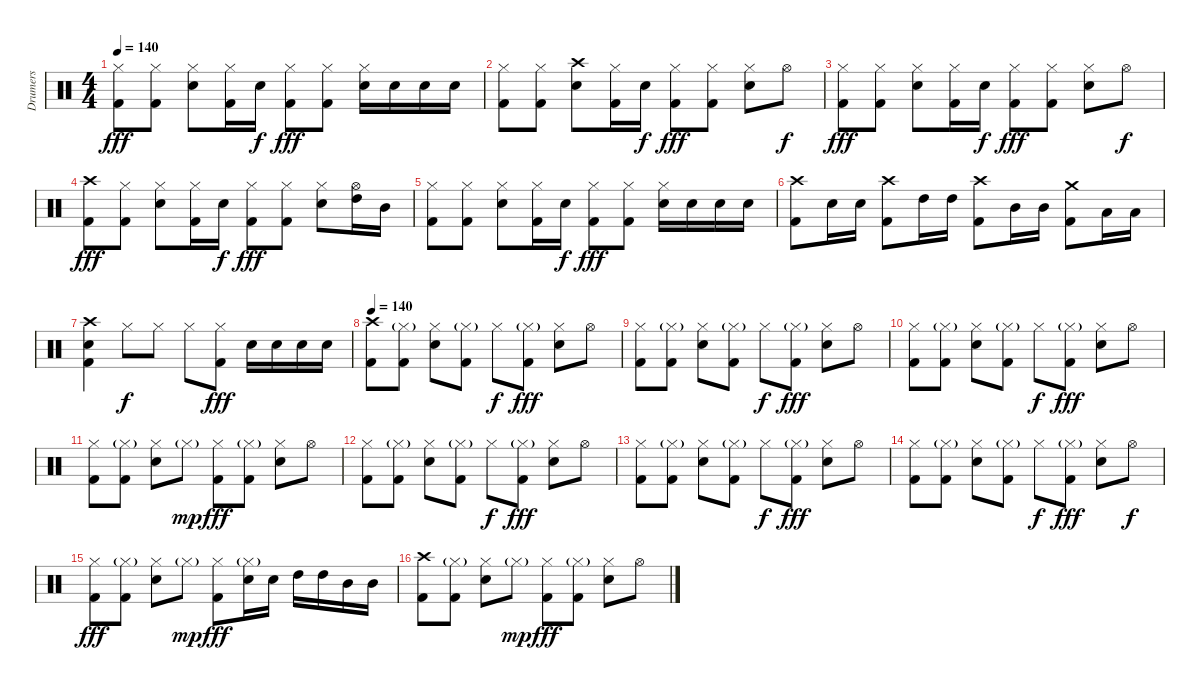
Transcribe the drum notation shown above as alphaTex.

\track ("Drumers" "Drumers") {instrument percussion}
\staff {score}
\articulation defaults
\ts (4 4)
\tempo 140
\clef neutral
\ks c
("Hi-Hat (closed)" "Kick (hit) 2").8{dy fff} ("Hi-Hat (closed)" "Kick (hit) 2").8 ("Hi-Hat (closed)" "Electric Snare (hit)").8 ("Hi-Hat (closed)" "Kick (hit) 2").16 "Electric Snare (hit)".16{dy f} ("Hi-Hat (closed)" "Kick (hit) 2").8{dy fff} ("Hi-Hat (closed)" "Kick (hit) 2").8 ("Hi-Hat (closed)" "Electric Snare (hit)").16 "Electric Snare (hit)".16 "Electric Snare (hit)".16 "Electric Snare (hit)".16 |
("Hi-Hat (closed)" "Kick (hit) 2").8 ("Hi-Hat (closed)" "Kick (hit) 2").8 ("Crash high (hit)" "Electric Snare (hit)").8 ("Hi-Hat (closed)" "Kick (hit) 2").16 "Electric Snare (hit)".16{dy f} ("Hi-Hat (closed)" "Kick (hit) 2").8{dy fff} ("Hi-Hat (closed)" "Kick (hit) 2").8 ("Hi-Hat (closed)" "Electric Snare (hit)").8 "Hi-Hat (open)".8{dy f} |
("Hi-Hat (closed)" "Kick (hit) 2").8{dy fff} ("Hi-Hat (closed)" "Kick (hit) 2").8 ("Hi-Hat (closed)" "Electric Snare (hit)").8 ("Hi-Hat (closed)" "Kick (hit) 2").16 "Electric Snare (hit)".16{dy f} ("Hi-Hat (closed)" "Kick (hit) 2").8{dy fff} ("Hi-Hat (closed)" "Kick (hit) 2").8 ("Hi-Hat (closed)" "Electric Snare (hit)").8 "Hi-Hat (open)".8{dy f} |
("Crash high (hit)" "Kick (hit) 2").8{dy fff} ("Hi-Hat (closed)" "Kick (hit) 2").8 ("Hi-Hat (closed)" "Electric Snare (hit)").8 ("Hi-Hat (closed)" "Kick (hit) 2").16 "Electric Snare (hit)".16{dy f} ("Hi-Hat (closed)" "Kick (hit) 2").8{dy fff} ("Hi-Hat (closed)" "Kick (hit) 2").8 ("Hi-Hat (closed)" "Electric Snare (hit)").8 ("Hi-Hat (open)" "High Tom (hit)").16 "Mid Tom (hit)".16 |
("Hi-Hat (closed)" "Kick (hit) 2").8 ("Hi-Hat (closed)" "Kick (hit) 2").8 ("Hi-Hat (closed)" "Electric Snare (hit)").8 ("Hi-Hat (closed)" "Kick (hit) 2").16 "Electric Snare (hit)".16{dy f} ("Hi-Hat (closed)" "Kick (hit) 2").8{dy fff} ("Hi-Hat (closed)" "Kick (hit) 2").8 ("Hi-Hat (closed)" "Electric Snare (hit)").16 "Electric Snare (hit)".16 "Electric Snare (hit)".16 "Electric Snare (hit)".16 |
("Crash high (hit)" "Kick (hit) 2").8 "Electric Snare (hit)".16 "Electric Snare (hit)".16 ("Crash high (hit)" "Kick (hit) 2").8 "High Tom (hit)".16 "High Tom (hit)".16 ("Crash high (hit)" "Kick (hit) 2").8 "Mid Tom (hit)".16 "Mid Tom (hit)".16 ("Crash medium (hit)" "Kick (hit) 2").8 "Low Tom (hit)".16 "Low Tom (hit)".16 |
("Crash high (hit)" "Electric Snare (hit)" "Kick (hit) 2").4 "Hi-Hat (closed)".8{dy f} "Hi-Hat (closed)".8 "Hi-Hat (closed)".8 ("Hi-Hat (closed)" "Kick (hit) 2").8{dy fff} "Electric Snare (hit)".16 "Electric Snare (hit)".16 "Electric Snare (hit)".16 "Electric Snare (hit)".16 |
\tempo 140
("Crash high (hit)" "Kick (hit) 2").8 ("Hi-Hat (closed)"{g} "Kick (hit) 2").8 ("Hi-Hat (closed)" "Electric Snare (hit)").8 ("Hi-Hat (closed)"{g} "Kick (hit) 2").8 "Hi-Hat (closed)".8{dy f} ("Hi-Hat (closed)"{g} "Kick (hit) 2").8{dy fff} ("Hi-Hat (closed)" "Electric Snare (hit)").8 "Hi-Hat (open)".8 |
("Hi-Hat (closed)" "Kick (hit) 2").8 ("Hi-Hat (closed)"{g} "Kick (hit) 2").8 ("Hi-Hat (closed)" "Electric Snare (hit)").8 ("Hi-Hat (closed)"{g} "Kick (hit) 2").8 "Hi-Hat (closed)".8{dy f} ("Hi-Hat (closed)"{g} "Kick (hit) 2").8{dy fff} ("Hi-Hat (closed)" "Electric Snare (hit)").8 "Hi-Hat (open)".8 |
("Hi-Hat (closed)" "Kick (hit) 2").8 ("Hi-Hat (closed)"{g} "Kick (hit) 2").8 ("Hi-Hat (closed)" "Electric Snare (hit)").8 ("Hi-Hat (closed)"{g} "Kick (hit) 2").8 "Hi-Hat (closed)".8{dy f} ("Hi-Hat (closed)"{g} "Kick (hit) 2").8{dy fff} ("Hi-Hat (closed)" "Electric Snare (hit)").8 "Hi-Hat (open)".8 |
("Hi-Hat (closed)" "Kick (hit) 2").8 ("Hi-Hat (closed)"{g} "Kick (hit) 2").8 ("Hi-Hat (closed)" "Electric Snare (hit)").8 "Hi-Hat (closed)"{g}.8{dy mp} ("Hi-Hat (closed)" "Kick (hit) 2").8{dy fff} ("Hi-Hat (closed)"{g} "Kick (hit) 2").8 ("Hi-Hat (closed)" "Electric Snare (hit)").8 "Hi-Hat (open)".8 |
("Hi-Hat (closed)" "Kick (hit) 2").8 ("Hi-Hat (closed)"{g} "Kick (hit) 2").8 ("Hi-Hat (closed)" "Electric Snare (hit)").8 ("Hi-Hat (closed)"{g} "Kick (hit) 2").8 "Hi-Hat (closed)".8{dy f} ("Hi-Hat (closed)"{g} "Kick (hit) 2").8{dy fff} ("Hi-Hat (closed)" "Electric Snare (hit)").8 "Hi-Hat (open)".8 |
("Hi-Hat (closed)" "Kick (hit) 2").8 ("Hi-Hat (closed)"{g} "Kick (hit) 2").8 ("Hi-Hat (closed)" "Electric Snare (hit)").8 ("Hi-Hat (closed)"{g} "Kick (hit) 2").8 "Hi-Hat (closed)".8{dy f} ("Hi-Hat (closed)"{g} "Kick (hit) 2").8{dy fff} ("Hi-Hat (closed)" "Electric Snare (hit)").8 "Hi-Hat (open)".8 |
("Hi-Hat (closed)" "Kick (hit) 2").8 ("Hi-Hat (closed)"{g} "Kick (hit) 2").8 ("Hi-Hat (closed)" "Electric Snare (hit)").8 ("Hi-Hat (closed)"{g} "Kick (hit) 2").8 "Hi-Hat (closed)".8{dy f} ("Hi-Hat (closed)"{g} "Kick (hit) 2").8{dy fff} ("Hi-Hat (closed)" "Electric Snare (hit)").8 "Hi-Hat (open)".8{dy f} |
("Hi-Hat (closed)" "Kick (hit) 2").8{dy fff} ("Hi-Hat (closed)"{g} "Kick (hit) 2").8 ("Hi-Hat (closed)" "Electric Snare (hit)").8 "Hi-Hat (closed)"{g}.8{dy mp} ("Hi-Hat (closed)" "Kick (hit) 2").8{dy fff} ("Hi-Hat (closed)"{g} "Electric Snare (hit)").16 "Electric Snare (hit)".16 "High Tom (hit)".16 "High Tom (hit)".16 "Mid Tom (hit)".16 "Mid Tom (hit)".16 |
("Crash high (hit)" "Kick (hit) 2").8 ("Hi-Hat (closed)"{g} "Kick (hit) 2").8 ("Hi-Hat (closed)" "Electric Snare (hit)").8 "Hi-Hat (closed)"{g}.8{dy mp} ("Hi-Hat (closed)" "Kick (hit) 2").8{dy fff} ("Hi-Hat (closed)"{g} "Kick (hit) 2").8 ("Hi-Hat (closed)" "Electric Snare (hit)").8 "Hi-Hat (open)".8
